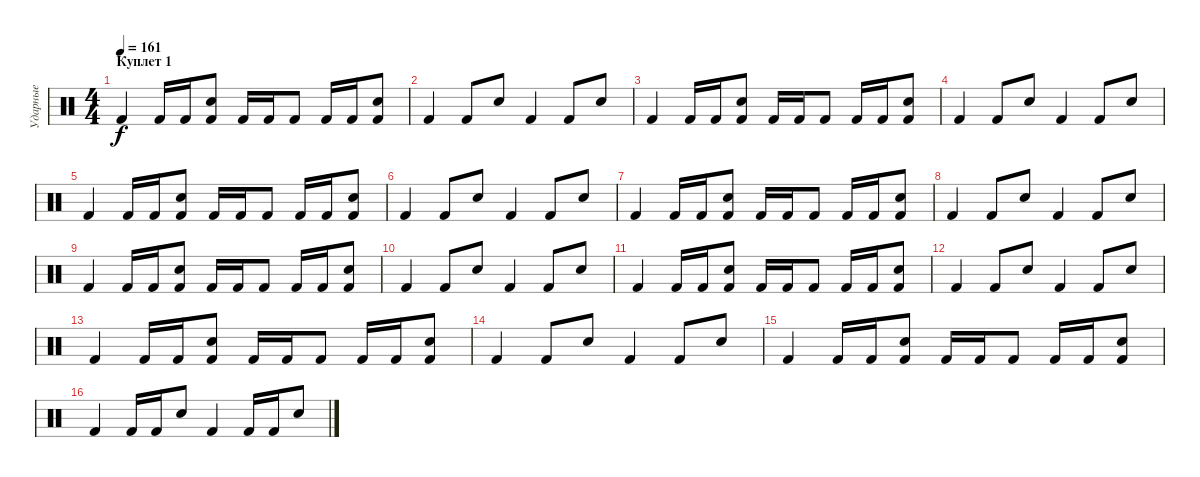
\track ("Ударные" "Ударные") {instrument percussion}
\staff {score}
\articulation defaults
\ts (4 4)
\section ("" "Куплет 1")
\tempo 161
\clef neutral
\ks c "Kick (hit) 2".4{dy f} "Kick (hit) 2".16 "Kick (hit) 2".16
("Snare (hit) 2" "Kick (hit) 2").8 "Kick (hit) 2".16 "Kick (hit) 2".16 "Kick (hit) 2".8 "Kick (hit) 2".16 "Kick (hit) 2".16 ("Snare (hit) 2" "Kick (hit) 2").8 |
"Kick (hit) 2".4 "Kick (hit) 2".8 "Snare (hit) 2".8 "Kick (hit) 2".4 "Kick (hit) 2".8 "Snare (hit) 2".8 |
"Kick (hit) 2".4 "Kick (hit) 2".16 "Kick (hit) 2".16 ("Snare (hit) 2" "Kick (hit) 2").8 "Kick (hit) 2".16 "Kick (hit) 2".16 "Kick (hit) 2".8 "Kick (hit) 2".16 "Kick (hit) 2".16 ("Snare (hit) 2" "Kick (hit) 2").8 |
"Kick (hit) 2".4 "Kick (hit) 2".8 "Snare (hit) 2".8 "Kick (hit) 2".4 "Kick (hit) 2".8 "Snare (hit) 2".8 |
"Kick (hit) 2".4 "Kick (hit) 2".16 "Kick (hit) 2".16 ("Snare (hit) 2" "Kick (hit) 2").8 "Kick (hit) 2".16 "Kick (hit) 2".16 "Kick (hit) 2".8 "Kick (hit) 2".16 "Kick (hit) 2".16 ("Snare (hit) 2" "Kick (hit) 2").8 |
"Kick (hit) 2".4 "Kick (hit) 2".8 "Snare (hit) 2".8 "Kick (hit) 2".4 "Kick (hit) 2".8 "Snare (hit) 2".8 |
"Kick (hit) 2".4 "Kick (hit) 2".16 "Kick (hit) 2".16 ("Snare (hit) 2" "Kick (hit) 2").8 "Kick (hit) 2".16 "Kick (hit) 2".16 "Kick (hit) 2".8 "Kick (hit) 2".16 "Kick (hit) 2".16 ("Snare (hit) 2" "Kick (hit) 2").8 |
"Kick (hit) 2".4 "Kick (hit) 2".8 "Snare (hit) 2".8 "Kick (hit) 2".4 "Kick (hit) 2".8 "Snare (hit) 2".8 |
"Kick (hit) 2".4 "Kick (hit) 2".16 "Kick (hit) 2".16 ("Snare (hit) 2" "Kick (hit) 2").8 "Kick (hit) 2".16 "Kick (hit) 2".16 "Kick (hit) 2".8 "Kick (hit) 2".16 "Kick (hit) 2".16 ("Snare (hit) 2" "Kick (hit) 2").8 |
"Kick (hit) 2".4 "Kick (hit) 2".8 "Snare (hit) 2".8 "Kick (hit) 2".4 "Kick (hit) 2".8 "Snare (hit) 2".8 |
"Kick (hit) 2".4 "Kick (hit) 2".16 "Kick (hit) 2".16 ("Snare (hit) 2" "Kick (hit) 2").8 "Kick (hit) 2".16 "Kick (hit) 2".16 "Kick (hit) 2".8 "Kick (hit) 2".16 "Kick (hit) 2".16 ("Snare (hit) 2" "Kick (hit) 2").8 |
"Kick (hit) 2".4 "Kick (hit) 2".8 "Snare (hit) 2".8 "Kick (hit) 2".4 "Kick (hit) 2".8 "Snare (hit) 2".8 |
"Kick (hit) 2".4 "Kick (hit) 2".16 "Kick (hit) 2".16 ("Snare (hit) 2" "Kick (hit) 2").8 "Kick (hit) 2".16 "Kick (hit) 2".16 "Kick (hit) 2".8 "Kick (hit) 2".16 "Kick (hit) 2".16 ("Snare (hit) 2" "Kick (hit) 2").8 |
"Kick (hit) 2".4 "Kick (hit) 2".8 "Snare (hit) 2".8 "Kick (hit) 2".4 "Kick (hit) 2".8 "Snare (hit) 2".8 |
"Kick (hit) 2".4 "Kick (hit) 2".16 "Kick (hit) 2".16 ("Snare (hit) 2" "Kick (hit) 2").8 "Kick (hit) 2".16 "Kick (hit) 2".16 "Kick (hit) 2".8 "Kick (hit) 2".16 "Kick (hit) 2".16 ("Snare (hit) 2" "Kick (hit) 2").8 |
"Kick (hit) 2".4 "Kick (hit) 2".16 "Kick (hit) 2".16 "Snare (hit) 2".8 "Kick (hit) 2".4 "Kick (hit) 2".16 "Kick (hit) 2".16 "Snare (hit) 2".8
